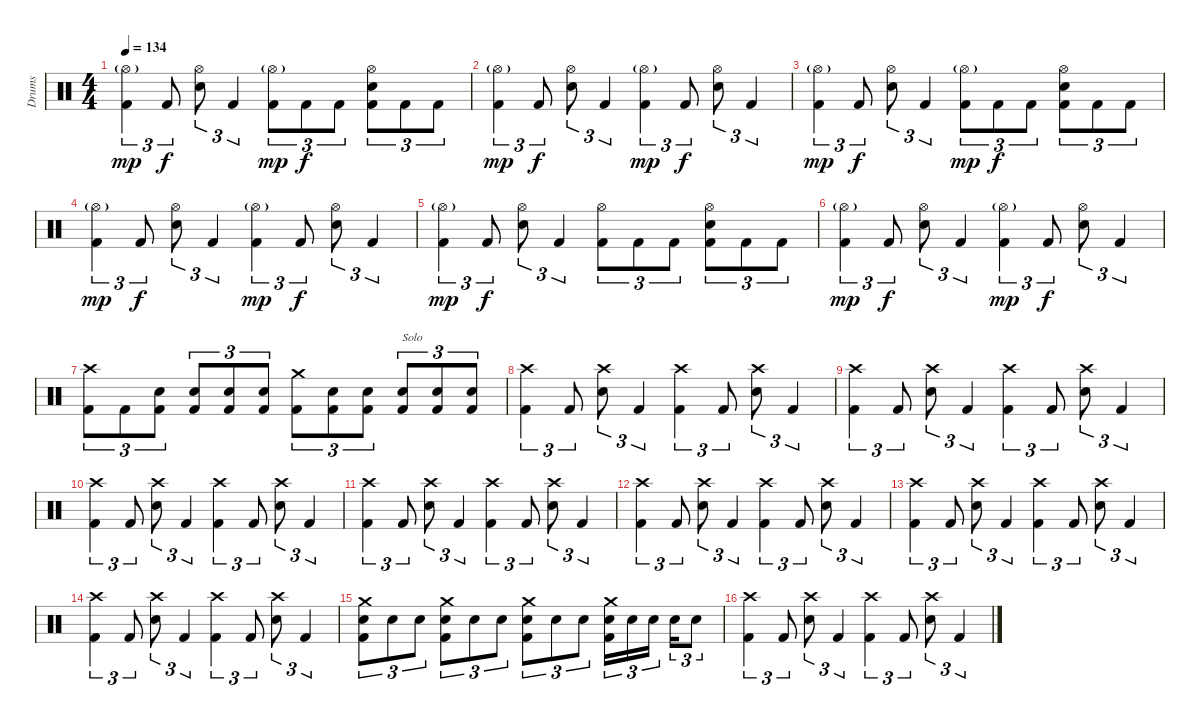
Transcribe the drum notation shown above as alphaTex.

\track ("Drums" "Drums") {instrument percussion}
\staff {score}
\articulation defaults
\ts (4 4)
\tempo 134
\clef neutral
\ks c
("Hi-Hat (open)"{g} "Kick (hit) 2").4{tu (3 2) dy mp} "Kick (hit) 2".8{tu (3 2) dy f} ("Hi-Hat (open)" "Electric Snare (hit)").8{tu (3 2)} "Kick (hit) 2".4{tu (3 2)} ("Hi-Hat (open)"{g} "Kick (hit) 2").8{tu (3 2) dy mp} "Kick (hit) 2".8{tu (3 2) dy f} "Kick (hit) 2".8{tu (3 2)} ("Hi-Hat (open)" "Electric Snare (hit)" "Kick (hit) 2").8{tu (3 2)} "Kick (hit) 2".8{tu (3 2)} "Kick (hit) 2".8{tu (3 2)} |
("Hi-Hat (open)"{g} "Kick (hit) 2").4{tu (3 2) dy mp} "Kick (hit) 2".8{tu (3 2) dy f} ("Hi-Hat (open)" "Electric Snare (hit)").8{tu (3 2)} "Kick (hit) 2".4{tu (3 2)} ("Hi-Hat (open)"{g} "Kick (hit) 2").4{tu (3 2) dy mp} "Kick (hit) 2".8{tu (3 2) dy f} ("Hi-Hat (open)" "Electric Snare (hit)").8{tu (3 2)} "Kick (hit) 2".4{tu (3 2)} |
("Hi-Hat (open)"{g} "Kick (hit) 2").4{tu (3 2) dy mp} "Kick (hit) 2".8{tu (3 2) dy f} ("Hi-Hat (open)" "Electric Snare (hit)").8{tu (3 2)} "Kick (hit) 2".4{tu (3 2)} ("Hi-Hat (open)"{g} "Kick (hit) 2").8{tu (3 2) dy mp} "Kick (hit) 2".8{tu (3 2) dy f} "Kick (hit) 2".8{tu (3 2)} ("Hi-Hat (open)" "Electric Snare (hit)" "Kick (hit) 2").8{tu (3 2)} "Kick (hit) 2".8{tu (3 2)} "Kick (hit) 2".8{tu (3 2)} |
("Hi-Hat (open)"{g} "Kick (hit) 2").4{tu (3 2) dy mp} "Kick (hit) 2".8{tu (3 2) dy f} ("Hi-Hat (open)" "Electric Snare (hit)").8{tu (3 2)} "Kick (hit) 2".4{tu (3 2)} ("Hi-Hat (open)"{g} "Kick (hit) 2").4{tu (3 2) dy mp} "Kick (hit) 2".8{tu (3 2) dy f} ("Hi-Hat (open)" "Electric Snare (hit)").8{tu (3 2)} "Kick (hit) 2".4{tu (3 2)} |
("Hi-Hat (open)"{g} "Kick (hit) 2").4{tu (3 2) dy mp} "Kick (hit) 2".8{tu (3 2) dy f} ("Hi-Hat (open)" "Electric Snare (hit)").8{tu (3 2)} "Kick (hit) 2".4{tu (3 2)} ("Hi-Hat (open)" "Kick (hit) 2").8{tu (3 2)} "Kick (hit) 2".8{tu (3 2)} "Kick (hit) 2".8{tu (3 2)} ("Hi-Hat (open)" "Electric Snare (hit)" "Kick (hit) 2").8{tu (3 2)} "Kick (hit) 2".8{tu (3 2)} "Kick (hit) 2".8{tu (3 2)} |
("Hi-Hat (open)"{g} "Kick (hit) 2").4{tu (3 2) dy mp} "Kick (hit) 2".8{tu (3 2) dy f} ("Hi-Hat (open)" "Electric Snare (hit)").8{tu (3 2)} "Kick (hit) 2".4{tu (3 2)} ("Hi-Hat (open)"{g} "Kick (hit) 2").4{tu (3 2) dy mp} "Kick (hit) 2".8{tu (3 2) dy f} ("Hi-Hat (open)" "Electric Snare (hit)").8{tu (3 2)} "Kick (hit) 2".4{tu (3 2)} |
("Crash high (hit)" "Kick (hit) 2").8{tu (3 2)} "Kick (hit) 2".8{tu (3 2)} ("Electric Snare (hit)" "Kick (hit) 2").8{tu (3 2)} ("Electric Snare (hit)" "Kick (hit) 2").8{tu (3 2)} ("Electric Snare (hit)" "Kick (hit) 2").8{tu (3 2)} ("Electric Snare (hit)" "Kick (hit) 2").8{tu (3 2)} ("Crash medium (hit)" "Kick (hit) 2").8{tu (3 2)} ("Electric Snare (hit)" "Kick (hit) 2").8{tu (3 2)} ("Electric Snare (hit)" "Kick (hit) 2").8{tu (3 2)} ("Electric Snare (hit)" "Kick (hit) 2").8{tu (3 2) txt "Solo"} ("Electric Snare (hit)" "Kick (hit) 2").8{tu (3 2)} ("Electric Snare (hit)" "Kick (hit) 2").8{tu (3 2)} |
("Crash high (hit)" "Kick (hit) 2").4{tu (3 2)} "Kick (hit) 2".8{tu (3 2)} ("Crash high (hit)" "Electric Snare (hit)").8{tu (3 2)} "Kick (hit) 2".4{tu (3 2)} ("Crash high (hit)" "Kick (hit) 2").4{tu (3 2)} "Kick (hit) 2".8{tu (3 2)} ("Crash high (hit)" "Electric Snare (hit)").8{tu (3 2)} "Kick (hit) 2".4{tu (3 2)} |
("Crash high (hit)" "Kick (hit) 2").4{tu (3 2)} "Kick (hit) 2".8{tu (3 2)} ("Crash high (hit)" "Electric Snare (hit)").8{tu (3 2)} "Kick (hit) 2".4{tu (3 2)} ("Crash high (hit)" "Kick (hit) 2").4{tu (3 2)} "Kick (hit) 2".8{tu (3 2)} ("Crash high (hit)" "Electric Snare (hit)").8{tu (3 2)} "Kick (hit) 2".4{tu (3 2)} |
("Crash high (hit)" "Kick (hit) 2").4{tu (3 2)} "Kick (hit) 2".8{tu (3 2)} ("Crash high (hit)" "Electric Snare (hit)").8{tu (3 2)} "Kick (hit) 2".4{tu (3 2)} ("Crash high (hit)" "Kick (hit) 2").4{tu (3 2)} "Kick (hit) 2".8{tu (3 2)} ("Crash high (hit)" "Electric Snare (hit)").8{tu (3 2)} "Kick (hit) 2".4{tu (3 2)} |
("Crash high (hit)" "Kick (hit) 2").4{tu (3 2)} "Kick (hit) 2".8{tu (3 2)} ("Crash high (hit)" "Electric Snare (hit)").8{tu (3 2)} "Kick (hit) 2".4{tu (3 2)} ("Crash high (hit)" "Kick (hit) 2").4{tu (3 2)} "Kick (hit) 2".8{tu (3 2)} ("Crash high (hit)" "Electric Snare (hit)").8{tu (3 2)} "Kick (hit) 2".4{tu (3 2)} |
("Crash high (hit)" "Kick (hit) 2").4{tu (3 2)} "Kick (hit) 2".8{tu (3 2)} ("Crash high (hit)" "Electric Snare (hit)").8{tu (3 2)} "Kick (hit) 2".4{tu (3 2)} ("Crash high (hit)" "Kick (hit) 2").4{tu (3 2)} "Kick (hit) 2".8{tu (3 2)} ("Crash high (hit)" "Electric Snare (hit)").8{tu (3 2)} "Kick (hit) 2".4{tu (3 2)} |
("Crash high (hit)" "Kick (hit) 2").4{tu (3 2)} "Kick (hit) 2".8{tu (3 2)} ("Crash high (hit)" "Electric Snare (hit)").8{tu (3 2)} "Kick (hit) 2".4{tu (3 2)} ("Crash high (hit)" "Kick (hit) 2").4{tu (3 2)} "Kick (hit) 2".8{tu (3 2)} ("Crash high (hit)" "Electric Snare (hit)").8{tu (3 2)} "Kick (hit) 2".4{tu (3 2)} |
("Crash high (hit)" "Kick (hit) 2").4{tu (3 2)} "Kick (hit) 2".8{tu (3 2)} ("Crash high (hit)" "Electric Snare (hit)").8{tu (3 2)} "Kick (hit) 2".4{tu (3 2)} ("Crash high (hit)" "Kick (hit) 2").4{tu (3 2)} "Kick (hit) 2".8{tu (3 2)} ("Crash high (hit)" "Electric Snare (hit)").8{tu (3 2)} "Kick (hit) 2".4{tu (3 2)} |
("Crash medium (hit)" "Electric Snare (hit)" "Kick (hit) 2").8{tu (3 2)} "Electric Snare (hit)".8{tu (3 2)} "Electric Snare (hit)".8{tu (3 2)} ("Crash medium (hit)" "Electric Snare (hit)" "Kick (hit) 2").8{tu (3 2)} "Electric Snare (hit)".8{tu (3 2)} "Electric Snare (hit)".8{tu (3 2)} ("Crash medium (hit)" "Electric Snare (hit)" "Kick (hit) 2").8{tu (3 2)} "Electric Snare (hit)".8{tu (3 2)} "Electric Snare (hit)".8{tu (3 2)} ("Crash medium (hit)" "Electric Snare (hit)" "Kick (hit) 2").16{tu (3 2)} "Electric Snare (hit)".16{tu (3 2)} "Electric Snare (hit)".16{tu (3 2)} "Electric Snare (hit)".16{tu (3 2)} "Electric Snare (hit)".8{tu (3 2)} |
("Crash high (hit)" "Kick (hit) 2").4{tu (3 2)} "Kick (hit) 2".8{tu (3 2)} ("Crash high (hit)" "Electric Snare (hit)").8{tu (3 2)} "Kick (hit) 2".4{tu (3 2)} ("Crash high (hit)" "Kick (hit) 2").4{tu (3 2)} "Kick (hit) 2".8{tu (3 2)} ("Crash high (hit)" "Electric Snare (hit)").8{tu (3 2)} "Kick (hit) 2".4{tu (3 2)}
